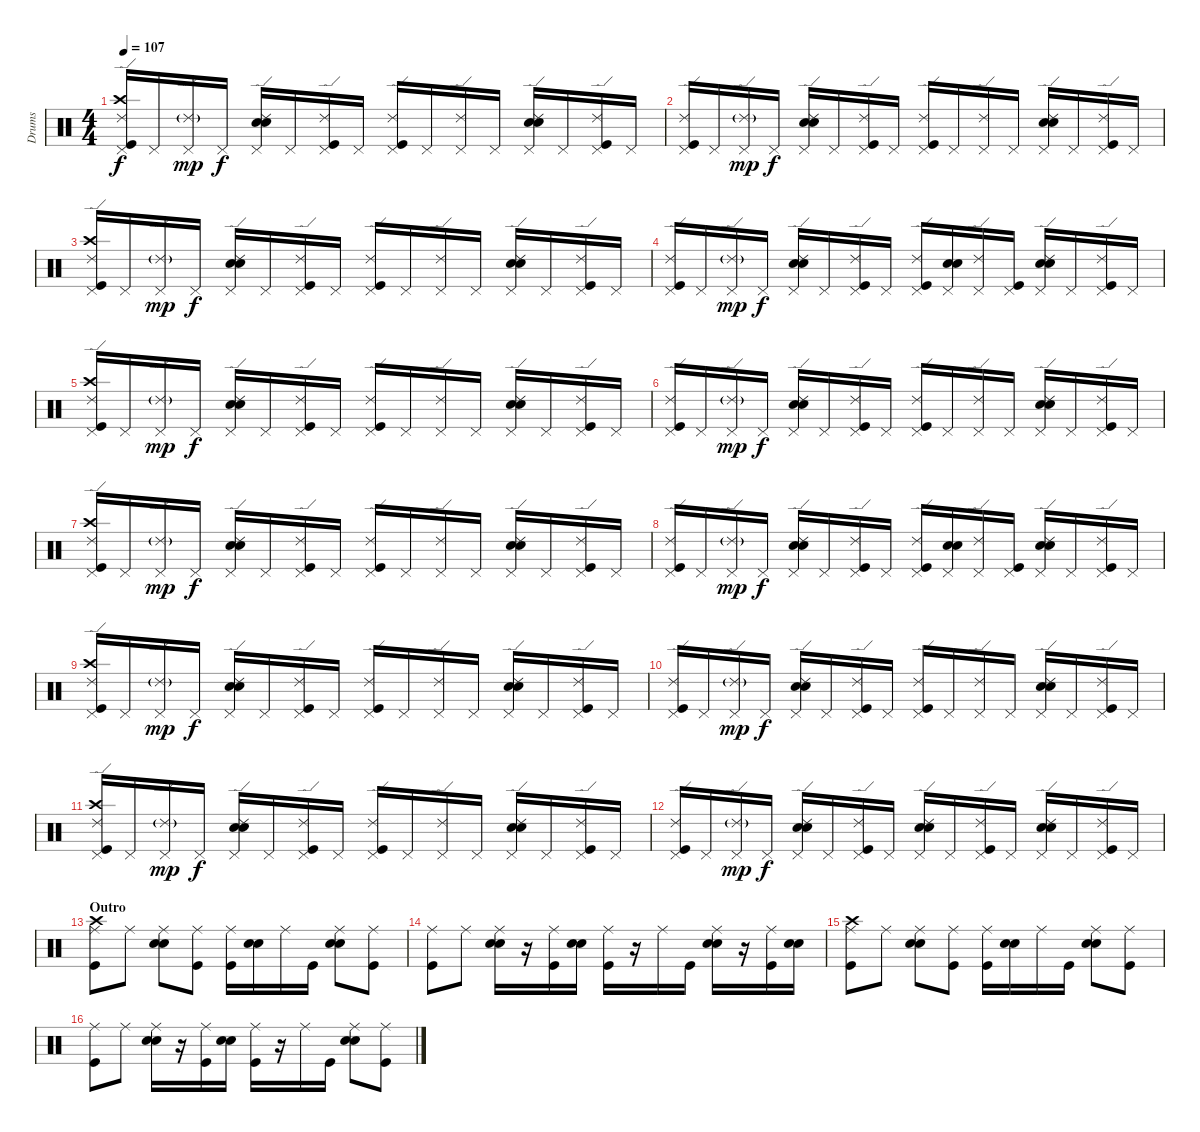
\track ("Drums" "Drums") {instrument percussion}
\staff {score}
\articulation defaults
\ts (4 4)
\tempo 107
\clef neutral
\ks c
("Pedal Hi-Hat (hit)" "Crash high (hit)" "Ride (edge) 2" "Kick (hit)").16{dy f} "Pedal Hi-Hat (hit)".16 ("Pedal Hi-Hat (hit)" "Ride (edge) 2"{g}).16{dy mp} "Pedal Hi-Hat (hit)".16{dy f} ("Pedal Hi-Hat (hit)" "Ride (edge) 2" "Electric Snare (hit)" "Snare (hit) 2").16 "Pedal Hi-Hat (hit)".16 ("Pedal Hi-Hat (hit)" "Ride (edge) 2" "Kick (hit)").16 "Pedal Hi-Hat (hit)".16 ("Pedal Hi-Hat (hit)" "Ride (edge) 2" "Kick (hit)").16 "Pedal Hi-Hat (hit)".16 ("Pedal Hi-Hat (hit)" "Ride (edge) 2").16 "Pedal Hi-Hat (hit)".16 ("Pedal Hi-Hat (hit)" "Ride (edge) 2" "Electric Snare (hit)" "Snare (hit) 2").16 "Pedal Hi-Hat (hit)".16 ("Pedal Hi-Hat (hit)" "Ride (edge) 2" "Kick (hit)").16 "Pedal Hi-Hat (hit)".16 |
("Pedal Hi-Hat (hit)" "Ride (edge) 2" "Kick (hit)").16 "Pedal Hi-Hat (hit)".16 ("Pedal Hi-Hat (hit)" "Ride (edge) 2"{g}).16{dy mp} "Pedal Hi-Hat (hit)".16{dy f} ("Pedal Hi-Hat (hit)" "Ride (edge) 2" "Electric Snare (hit)" "Snare (hit) 2").16 "Pedal Hi-Hat (hit)".16 ("Pedal Hi-Hat (hit)" "Ride (edge) 2" "Kick (hit)").16 "Pedal Hi-Hat (hit)".16 ("Pedal Hi-Hat (hit)" "Ride (edge) 2" "Kick (hit)").16 "Pedal Hi-Hat (hit)".16 ("Pedal Hi-Hat (hit)" "Ride (edge) 2").16 "Pedal Hi-Hat (hit)".16 ("Pedal Hi-Hat (hit)" "Ride (edge) 2" "Electric Snare (hit)" "Snare (hit) 2").16 "Pedal Hi-Hat (hit)".16 ("Pedal Hi-Hat (hit)" "Ride (edge) 2" "Kick (hit)").16 "Pedal Hi-Hat (hit)".16 |
("Pedal Hi-Hat (hit)" "Crash high (hit)" "Ride (edge) 2" "Kick (hit)").16 "Pedal Hi-Hat (hit)".16 ("Pedal Hi-Hat (hit)" "Ride (edge) 2"{g}).16{dy mp} "Pedal Hi-Hat (hit)".16{dy f} ("Pedal Hi-Hat (hit)" "Ride (edge) 2" "Electric Snare (hit)" "Snare (hit) 2").16 "Pedal Hi-Hat (hit)".16 ("Pedal Hi-Hat (hit)" "Ride (edge) 2" "Kick (hit)").16 "Pedal Hi-Hat (hit)".16 ("Pedal Hi-Hat (hit)" "Ride (edge) 2" "Kick (hit)").16 "Pedal Hi-Hat (hit)".16 ("Pedal Hi-Hat (hit)" "Ride (edge) 2").16 "Pedal Hi-Hat (hit)".16 ("Pedal Hi-Hat (hit)" "Ride (edge) 2" "Electric Snare (hit)" "Snare (hit) 2").16 "Pedal Hi-Hat (hit)".16 ("Pedal Hi-Hat (hit)" "Ride (edge) 2" "Kick (hit)").16 "Pedal Hi-Hat (hit)".16 |
("Pedal Hi-Hat (hit)" "Ride (edge) 2" "Kick (hit)").16 "Pedal Hi-Hat (hit)".16 ("Pedal Hi-Hat (hit)" "Ride (edge) 2"{g}).16{dy mp} "Pedal Hi-Hat (hit)".16{dy f} ("Pedal Hi-Hat (hit)" "Ride (edge) 2" "Electric Snare (hit)" "Snare (hit) 2").16 "Pedal Hi-Hat (hit)".16 ("Pedal Hi-Hat (hit)" "Ride (edge) 2" "Kick (hit)").16 "Pedal Hi-Hat (hit)".16 ("Pedal Hi-Hat (hit)" "Ride (edge) 2" "Kick (hit)").16 ("Pedal Hi-Hat (hit)" "Electric Snare (hit)" "Snare (hit) 2").16 ("Pedal Hi-Hat (hit)" "Ride (edge) 2").16 ("Pedal Hi-Hat (hit)" "Kick (hit)").16 ("Pedal Hi-Hat (hit)" "Ride (edge) 2" "Electric Snare (hit)" "Snare (hit) 2").16 "Pedal Hi-Hat (hit)".16 ("Pedal Hi-Hat (hit)" "Ride (edge) 2" "Kick (hit)").16 "Pedal Hi-Hat (hit)".16 |
("Pedal Hi-Hat (hit)" "Crash high (hit)" "Ride (edge) 2" "Kick (hit)").16 "Pedal Hi-Hat (hit)".16 ("Pedal Hi-Hat (hit)" "Ride (edge) 2"{g}).16{dy mp} "Pedal Hi-Hat (hit)".16{dy f} ("Pedal Hi-Hat (hit)" "Ride (edge) 2" "Electric Snare (hit)" "Snare (hit) 2").16 "Pedal Hi-Hat (hit)".16 ("Pedal Hi-Hat (hit)" "Ride (edge) 2" "Kick (hit)").16 "Pedal Hi-Hat (hit)".16 ("Pedal Hi-Hat (hit)" "Ride (edge) 2" "Kick (hit)").16 "Pedal Hi-Hat (hit)".16 ("Pedal Hi-Hat (hit)" "Ride (edge) 2").16 "Pedal Hi-Hat (hit)".16 ("Pedal Hi-Hat (hit)" "Ride (edge) 2" "Electric Snare (hit)" "Snare (hit) 2").16 "Pedal Hi-Hat (hit)".16 ("Pedal Hi-Hat (hit)" "Ride (edge) 2" "Kick (hit)").16 "Pedal Hi-Hat (hit)".16 |
("Pedal Hi-Hat (hit)" "Ride (edge) 2" "Kick (hit)").16 "Pedal Hi-Hat (hit)".16 ("Pedal Hi-Hat (hit)" "Ride (edge) 2"{g}).16{dy mp} "Pedal Hi-Hat (hit)".16{dy f} ("Pedal Hi-Hat (hit)" "Ride (edge) 2" "Electric Snare (hit)" "Snare (hit) 2").16 "Pedal Hi-Hat (hit)".16 ("Pedal Hi-Hat (hit)" "Ride (edge) 2" "Kick (hit)").16 "Pedal Hi-Hat (hit)".16 ("Pedal Hi-Hat (hit)" "Ride (edge) 2" "Kick (hit)").16 "Pedal Hi-Hat (hit)".16 ("Pedal Hi-Hat (hit)" "Ride (edge) 2").16 "Pedal Hi-Hat (hit)".16 ("Pedal Hi-Hat (hit)" "Ride (edge) 2" "Electric Snare (hit)" "Snare (hit) 2").16 "Pedal Hi-Hat (hit)".16 ("Pedal Hi-Hat (hit)" "Ride (edge) 2" "Kick (hit)").16 "Pedal Hi-Hat (hit)".16 |
("Pedal Hi-Hat (hit)" "Crash high (hit)" "Ride (edge) 2" "Kick (hit)").16 "Pedal Hi-Hat (hit)".16 ("Pedal Hi-Hat (hit)" "Ride (edge) 2"{g}).16{dy mp} "Pedal Hi-Hat (hit)".16{dy f} ("Pedal Hi-Hat (hit)" "Ride (edge) 2" "Electric Snare (hit)" "Snare (hit) 2").16 "Pedal Hi-Hat (hit)".16 ("Pedal Hi-Hat (hit)" "Ride (edge) 2" "Kick (hit)").16 "Pedal Hi-Hat (hit)".16 ("Pedal Hi-Hat (hit)" "Ride (edge) 2" "Kick (hit)").16 "Pedal Hi-Hat (hit)".16 ("Pedal Hi-Hat (hit)" "Ride (edge) 2").16 "Pedal Hi-Hat (hit)".16 ("Pedal Hi-Hat (hit)" "Ride (edge) 2" "Electric Snare (hit)" "Snare (hit) 2").16 "Pedal Hi-Hat (hit)".16 ("Pedal Hi-Hat (hit)" "Ride (edge) 2" "Kick (hit)").16 "Pedal Hi-Hat (hit)".16 |
("Pedal Hi-Hat (hit)" "Ride (edge) 2" "Kick (hit)").16 "Pedal Hi-Hat (hit)".16 ("Pedal Hi-Hat (hit)" "Ride (edge) 2"{g}).16{dy mp} "Pedal Hi-Hat (hit)".16{dy f} ("Pedal Hi-Hat (hit)" "Ride (edge) 2" "Electric Snare (hit)" "Snare (hit) 2").16 "Pedal Hi-Hat (hit)".16 ("Pedal Hi-Hat (hit)" "Ride (edge) 2" "Kick (hit)").16 "Pedal Hi-Hat (hit)".16 ("Pedal Hi-Hat (hit)" "Ride (edge) 2" "Kick (hit)").16 ("Pedal Hi-Hat (hit)" "Electric Snare (hit)" "Snare (hit) 2").16 ("Pedal Hi-Hat (hit)" "Ride (edge) 2").16 ("Pedal Hi-Hat (hit)" "Kick (hit)").16 ("Pedal Hi-Hat (hit)" "Ride (edge) 2" "Electric Snare (hit)" "Snare (hit) 2").16 "Pedal Hi-Hat (hit)".16 ("Pedal Hi-Hat (hit)" "Ride (edge) 2" "Kick (hit)").16 "Pedal Hi-Hat (hit)".16 |
("Pedal Hi-Hat (hit)" "Crash high (hit)" "Ride (edge) 2" "Kick (hit)").16 "Pedal Hi-Hat (hit)".16 ("Pedal Hi-Hat (hit)" "Ride (edge) 2"{g}).16{dy mp} "Pedal Hi-Hat (hit)".16{dy f} ("Pedal Hi-Hat (hit)" "Ride (edge) 2" "Electric Snare (hit)" "Snare (hit) 2").16 "Pedal Hi-Hat (hit)".16 ("Pedal Hi-Hat (hit)" "Ride (edge) 2" "Kick (hit)").16 "Pedal Hi-Hat (hit)".16 ("Pedal Hi-Hat (hit)" "Ride (edge) 2" "Kick (hit)").16 "Pedal Hi-Hat (hit)".16 ("Pedal Hi-Hat (hit)" "Ride (edge) 2").16 "Pedal Hi-Hat (hit)".16 ("Pedal Hi-Hat (hit)" "Ride (edge) 2" "Electric Snare (hit)" "Snare (hit) 2").16 "Pedal Hi-Hat (hit)".16 ("Pedal Hi-Hat (hit)" "Ride (edge) 2" "Kick (hit)").16 "Pedal Hi-Hat (hit)".16 |
("Pedal Hi-Hat (hit)" "Ride (edge) 2" "Kick (hit)").16 "Pedal Hi-Hat (hit)".16 ("Pedal Hi-Hat (hit)" "Ride (edge) 2"{g}).16{dy mp} "Pedal Hi-Hat (hit)".16{dy f} ("Pedal Hi-Hat (hit)" "Ride (edge) 2" "Electric Snare (hit)" "Snare (hit) 2").16 "Pedal Hi-Hat (hit)".16 ("Pedal Hi-Hat (hit)" "Ride (edge) 2" "Kick (hit)").16 "Pedal Hi-Hat (hit)".16 ("Pedal Hi-Hat (hit)" "Ride (edge) 2" "Kick (hit)").16 "Pedal Hi-Hat (hit)".16 ("Pedal Hi-Hat (hit)" "Ride (edge) 2").16 "Pedal Hi-Hat (hit)".16 ("Pedal Hi-Hat (hit)" "Ride (edge) 2" "Electric Snare (hit)" "Snare (hit) 2").16 "Pedal Hi-Hat (hit)".16 ("Pedal Hi-Hat (hit)" "Ride (edge) 2" "Kick (hit)").16 "Pedal Hi-Hat (hit)".16 |
("Pedal Hi-Hat (hit)" "Crash high (hit)" "Ride (edge) 2" "Kick (hit)").16 "Pedal Hi-Hat (hit)".16 ("Pedal Hi-Hat (hit)" "Ride (edge) 2"{g}).16{dy mp} "Pedal Hi-Hat (hit)".16{dy f} ("Pedal Hi-Hat (hit)" "Ride (edge) 2" "Electric Snare (hit)" "Snare (hit) 2").16 "Pedal Hi-Hat (hit)".16 ("Pedal Hi-Hat (hit)" "Ride (edge) 2" "Kick (hit)").16 "Pedal Hi-Hat (hit)".16 ("Pedal Hi-Hat (hit)" "Ride (edge) 2" "Kick (hit)").16 "Pedal Hi-Hat (hit)".16 ("Pedal Hi-Hat (hit)" "Ride (edge) 2").16 "Pedal Hi-Hat (hit)".16 ("Pedal Hi-Hat (hit)" "Ride (edge) 2" "Electric Snare (hit)" "Snare (hit) 2").16 "Pedal Hi-Hat (hit)".16 ("Pedal Hi-Hat (hit)" "Ride (edge) 2" "Kick (hit)").16 "Pedal Hi-Hat (hit)".16 |
("Pedal Hi-Hat (hit)" "Ride (edge) 2" "Kick (hit)").16 "Pedal Hi-Hat (hit)".16 ("Pedal Hi-Hat (hit)" "Ride (edge) 2"{g}).16{dy mp} "Pedal Hi-Hat (hit)".16{dy f} ("Pedal Hi-Hat (hit)" "Ride (edge) 2" "Electric Snare (hit)" "Snare (hit) 2").16 "Pedal Hi-Hat (hit)".16 ("Pedal Hi-Hat (hit)" "Ride (edge) 2" "Kick (hit)").16 "Pedal Hi-Hat (hit)".16 ("Pedal Hi-Hat (hit)" "Ride (edge) 2" "Electric Snare (hit)" "Snare (hit) 2").16 "Pedal Hi-Hat (hit)".16 ("Pedal Hi-Hat (hit)" "Ride (edge) 2" "Kick (hit)").16 "Pedal Hi-Hat (hit)".16 ("Pedal Hi-Hat (hit)" "Ride (edge) 2" "Electric Snare (hit)" "Snare (hit) 2").16 "Pedal Hi-Hat (hit)".16 ("Pedal Hi-Hat (hit)" "Ride (edge) 2" "Kick (hit)").16 "Pedal Hi-Hat (hit)".16 |
\section ("" "Outro")
("Crash high (hit)" "Ride (middle)" "Kick (hit)").8 "Ride (middle)".8 ("Ride (middle)" "Electric Snare (hit)" "Snare (hit) 2").8 ("Ride (middle)" "Kick (hit)").8 ("Ride (middle)" "Kick (hit)").16 ("Electric Snare (hit)" "Snare (hit) 2").16 "Ride (middle)".16 "Kick (hit)".16 ("Ride (middle)" "Electric Snare (hit)" "Snare (hit) 2").8 ("Ride (middle)" "Kick (hit)").8 |
("Ride (middle)" "Kick (hit)").8 "Ride (middle)".8 ("Ride (middle)" "Electric Snare (hit)" "Snare (hit) 2").16 r.16 ("Ride (middle)" "Kick (hit)").16 ("Electric Snare (hit)" "Snare (hit) 2").16 ("Ride (middle)" "Kick (hit)").16 r.16 "Ride (middle)".16 "Kick (hit)".16 ("Ride (middle)" "Electric Snare (hit)" "Snare (hit) 2").16 r.16 ("Ride (middle)" "Kick (hit)").16 ("Electric Snare (hit)" "Snare (hit) 2").16 |
("Crash high (hit)" "Ride (middle)" "Kick (hit)").8 "Ride (middle)".8 ("Ride (middle)" "Electric Snare (hit)" "Snare (hit) 2").8 ("Ride (middle)" "Kick (hit)").8 ("Ride (middle)" "Kick (hit)").16 ("Electric Snare (hit)" "Snare (hit) 2").16 "Ride (middle)".16 "Kick (hit)".16 ("Ride (middle)" "Electric Snare (hit)" "Snare (hit) 2").8 ("Ride (middle)" "Kick (hit)").8 |
("Ride (middle)" "Kick (hit)").8 "Ride (middle)".8 ("Ride (middle)" "Electric Snare (hit)" "Snare (hit) 2").16 r.16 ("Ride (middle)" "Kick (hit)").16 ("Electric Snare (hit)" "Snare (hit) 2").16 ("Ride (middle)" "Kick (hit)").16 r.16 "Ride (middle)".16 "Kick (hit)".16 ("Ride (middle)" "Electric Snare (hit)" "Snare (hit) 2").8 ("Ride (middle)" "Kick (hit)").8
